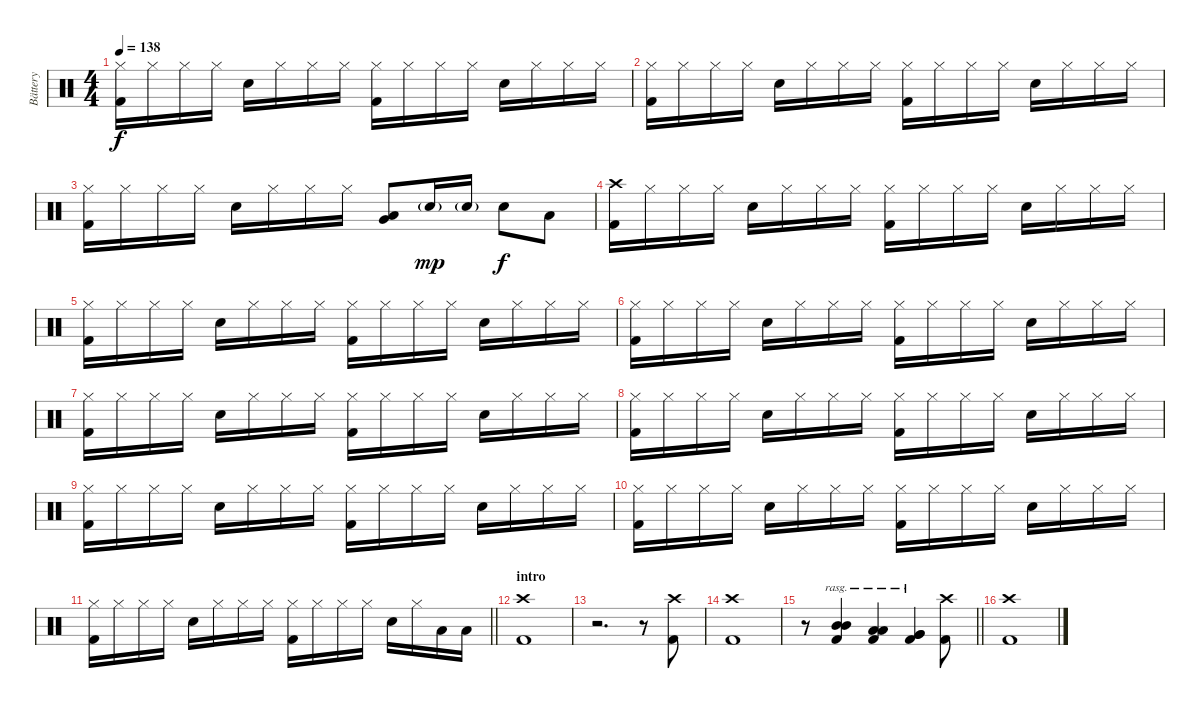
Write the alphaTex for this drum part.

\track ("Bättery" "Bättery") {instrument percussion}
\staff {score}
\articulation defaults
\ts (4 4)
\tempo 138
\clef neutral
\ks c
("Hi-Hat (closed)" "Kick (hit) 2").16{dy f} "Hi-Hat (closed)".16 "Hi-Hat (closed)".16 "Hi-Hat (closed)".16 "Electric Snare (hit)".16 "Hi-Hat (closed)".16 "Hi-Hat (closed)".16 "Hi-Hat (closed)".16 ("Hi-Hat (closed)" "Kick (hit) 2").16 "Hi-Hat (closed)".16 "Hi-Hat (closed)".16 "Hi-Hat (closed)".16 "Electric Snare (hit)".16 "Hi-Hat (closed)".16 "Hi-Hat (closed)".16 "Hi-Hat (closed)".16 |
("Hi-Hat (closed)" "Kick (hit) 2").16 "Hi-Hat (closed)".16 "Hi-Hat (closed)".16 "Hi-Hat (closed)".16 "Electric Snare (hit)".16 "Hi-Hat (closed)".16 "Hi-Hat (closed)".16 "Hi-Hat (closed)".16 ("Hi-Hat (closed)" "Kick (hit) 2").16 "Hi-Hat (closed)".16 "Hi-Hat (closed)".16 "Hi-Hat (closed)".16 "Electric Snare (hit)".16 "Hi-Hat (closed)".16 "Hi-Hat (closed)".16 "Hi-Hat (closed)".16 |
("Hi-Hat (closed)" "Kick (hit) 2").16 "Hi-Hat (closed)".16 "Hi-Hat (closed)".16 "Hi-Hat (closed)".16 "Electric Snare (hit)".16 "Hi-Hat (closed)".16 "Hi-Hat (closed)".16 "Hi-Hat (closed)".16 ("Low Tom (hit)" "Very Low Tom (hit)").8 "Electric Snare (hit)"{g}.16{dy mp} "Electric Snare (hit)"{g}.16 "Electric Snare (hit)".8{dy f} "Low Tom (hit)".8 |
("Crash high (hit)" "Kick (hit) 2").16 "Hi-Hat (closed)".16 "Hi-Hat (closed)".16 "Hi-Hat (closed)".16 "Electric Snare (hit)".16 "Hi-Hat (closed)".16 "Hi-Hat (closed)".16 "Hi-Hat (closed)".16 ("Hi-Hat (closed)" "Kick (hit) 2").16 "Hi-Hat (closed)".16 "Hi-Hat (closed)".16 "Hi-Hat (closed)".16 "Electric Snare (hit)".16 "Hi-Hat (closed)".16 "Hi-Hat (closed)".16 "Hi-Hat (closed)".16 |
("Hi-Hat (closed)" "Kick (hit) 2").16 "Hi-Hat (closed)".16 "Hi-Hat (closed)".16 "Hi-Hat (closed)".16 "Electric Snare (hit)".16 "Hi-Hat (closed)".16 "Hi-Hat (closed)".16 "Hi-Hat (closed)".16 ("Hi-Hat (closed)" "Kick (hit) 2").16 "Hi-Hat (closed)".16 "Hi-Hat (closed)".16 "Hi-Hat (closed)".16 "Electric Snare (hit)".16 "Hi-Hat (closed)".16 "Hi-Hat (closed)".16 "Hi-Hat (closed)".16 |
("Hi-Hat (closed)" "Kick (hit) 2").16 "Hi-Hat (closed)".16 "Hi-Hat (closed)".16 "Hi-Hat (closed)".16 "Electric Snare (hit)".16 "Hi-Hat (closed)".16 "Hi-Hat (closed)".16 "Hi-Hat (closed)".16 ("Hi-Hat (closed)" "Kick (hit) 2").16 "Hi-Hat (closed)".16 "Hi-Hat (closed)".16 "Hi-Hat (closed)".16 "Electric Snare (hit)".16 "Hi-Hat (closed)".16 "Hi-Hat (closed)".16 "Hi-Hat (closed)".16 |
("Hi-Hat (closed)" "Kick (hit) 2").16 "Hi-Hat (closed)".16 "Hi-Hat (closed)".16 "Hi-Hat (closed)".16 "Electric Snare (hit)".16 "Hi-Hat (closed)".16 "Hi-Hat (closed)".16 "Hi-Hat (closed)".16 ("Hi-Hat (closed)" "Kick (hit) 2").16 "Hi-Hat (closed)".16 "Hi-Hat (closed)".16 "Hi-Hat (closed)".16 "Electric Snare (hit)".16 "Hi-Hat (closed)".16 "Hi-Hat (closed)".16 "Hi-Hat (closed)".16 |
("Hi-Hat (closed)" "Kick (hit) 2").16 "Hi-Hat (closed)".16 "Hi-Hat (closed)".16 "Hi-Hat (closed)".16 "Electric Snare (hit)".16 "Hi-Hat (closed)".16 "Hi-Hat (closed)".16 "Hi-Hat (closed)".16 ("Hi-Hat (closed)" "Kick (hit) 2").16 "Hi-Hat (closed)".16 "Hi-Hat (closed)".16 "Hi-Hat (closed)".16 "Electric Snare (hit)".16 "Hi-Hat (closed)".16 "Hi-Hat (closed)".16 "Hi-Hat (closed)".16 |
("Hi-Hat (closed)" "Kick (hit) 2").16 "Hi-Hat (closed)".16 "Hi-Hat (closed)".16 "Hi-Hat (closed)".16 "Electric Snare (hit)".16 "Hi-Hat (closed)".16 "Hi-Hat (closed)".16 "Hi-Hat (closed)".16 ("Hi-Hat (closed)" "Kick (hit) 2").16 "Hi-Hat (closed)".16 "Hi-Hat (closed)".16 "Hi-Hat (closed)".16 "Electric Snare (hit)".16 "Hi-Hat (closed)".16 "Hi-Hat (closed)".16 "Hi-Hat (closed)".16 |
("Hi-Hat (closed)" "Kick (hit) 2").16 "Hi-Hat (closed)".16 "Hi-Hat (closed)".16 "Hi-Hat (closed)".16 "Electric Snare (hit)".16 "Hi-Hat (closed)".16 "Hi-Hat (closed)".16 "Hi-Hat (closed)".16 ("Hi-Hat (closed)" "Kick (hit) 2").16 "Hi-Hat (closed)".16 "Hi-Hat (closed)".16 "Hi-Hat (closed)".16 "Electric Snare (hit)".16 "Hi-Hat (closed)".16 "Hi-Hat (closed)".16 "Hi-Hat (closed)".16 |
\barLineRight lightlight
("Hi-Hat (closed)" "Kick (hit) 2").16 "Hi-Hat (closed)".16 "Hi-Hat (closed)".16 "Hi-Hat (closed)".16 "Electric Snare (hit)".16 "Hi-Hat (closed)".16 "Hi-Hat (closed)".16 "Hi-Hat (closed)".16 ("Hi-Hat (closed)" "Kick (hit) 2").16 "Hi-Hat (closed)".16 "Hi-Hat (closed)".16 "Hi-Hat (closed)".16 "Electric Snare (hit)".16 "Hi-Hat (closed)".16 "Low Tom (hit)".16 "Low Tom (hit)".16 |
\section ("" "intro")
("Crash high (hit)" "Kick (hit) 2").1 |
r.2{d} r.8 ("Crash high (hit)" "Kick (hit) 2").8 |
("Crash high (hit)" "Kick (hit) 2").1 |
\barLineRight lightlight
r.8 ("Mid Tom (hit)" "Mid Tom (hit)" "Kick (hit) 2").4{bu 120 rasg ii} ("Low Tom (hit)" "Low Tom (hit)" "Kick (hit) 2").4{bu 120 rasg ii} ("Very Low Tom (hit)" "Very Low Tom (hit)" "Kick (hit) 2").4{bu 120 rasg ii} ("Crash high (hit)" "Kick (hit) 2").8 |
("Crash high (hit)" "Kick (hit) 2").1
